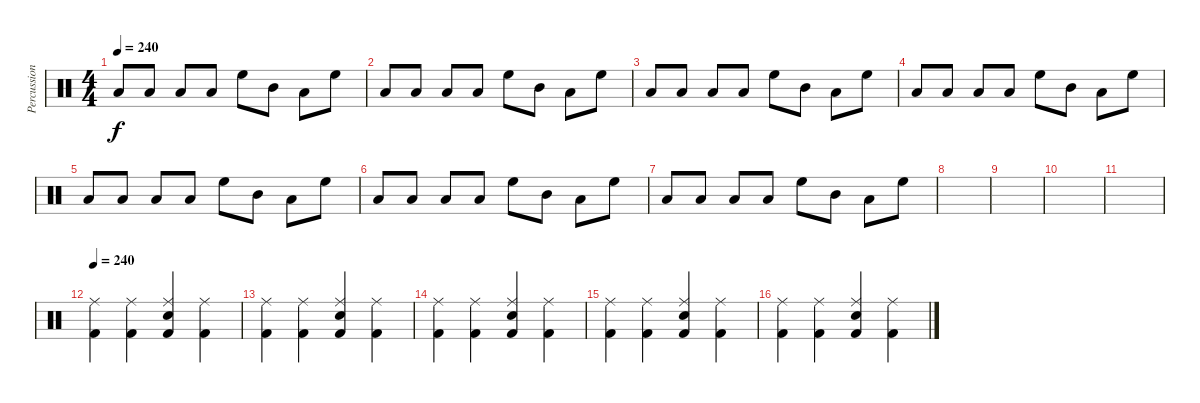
\track ("Percussion" "Percussion") {instrument percussion}
\staff {score}
\articulation defaults
\ts (4 4)
\tempo 240
\clef neutral
\ks c "Low Floor Tom (hit)".8{dy f} "Low Floor Tom (hit)".8 "Low Floor Tom (hit)".8 "Low Tom (hit)".8 "High Floor Tom (hit)".8 "Mid Tom (hit)".8 "Low Floor Tom (hit)".8 "High Floor Tom (hit)".8
|
"Low Floor Tom (hit)".8 "Low Floor Tom (hit)".8 "Low Floor Tom (hit)".8 "Low Tom (hit)".8 "High Floor Tom (hit)".8 "Mid Tom (hit)".8 "Low Floor Tom (hit)".8 "High Floor Tom (hit)".8 |
"Low Floor Tom (hit)".8 "Low Floor Tom (hit)".8 "Low Floor Tom (hit)".8 "Low Tom (hit)".8 "High Floor Tom (hit)".8 "Mid Tom (hit)".8 "Low Floor Tom (hit)".8 "High Floor Tom (hit)".8 |
"Low Floor Tom (hit)".8 "Low Floor Tom (hit)".8 "Low Floor Tom (hit)".8 "Low Tom (hit)".8 "High Floor Tom (hit)".8 "Mid Tom (hit)".8 "Low Floor Tom (hit)".8 "High Floor Tom (hit)".8 |
"Low Floor Tom (hit)".8 "Low Floor Tom (hit)".8 "Low Floor Tom (hit)".8 "Low Tom (hit)".8 "High Floor Tom (hit)".8 "Mid Tom (hit)".8 "Low Floor Tom (hit)".8 "High Floor Tom (hit)".8 |
"Low Floor Tom (hit)".8 "Low Floor Tom (hit)".8 "Low Floor Tom (hit)".8 "Low Tom (hit)".8 "High Floor Tom (hit)".8 "Mid Tom (hit)".8 "Low Floor Tom (hit)".8 "High Floor Tom (hit)".8 |
"Low Floor Tom (hit)".8 "Low Floor Tom (hit)".8 "Low Floor Tom (hit)".8 "Low Tom (hit)".8 "High Floor Tom (hit)".8 "Mid Tom (hit)".8 "Low Floor Tom (hit)".8 "High Floor Tom (hit)".8 |
|
|
|
|
\tempo 240
("Kick (hit) 2" "Ride (middle)").4 ("Kick (hit) 2" "Ride (middle)").4 ("Kick (hit) 2" "Snare (hit) 2" "Ride (middle)").4 ("Kick (hit) 2" "Ride (middle)").4 |
("Kick (hit) 2" "Ride (middle)").4 ("Kick (hit) 2" "Ride (middle)").4 ("Kick (hit) 2" "Snare (hit) 2" "Ride (middle)").4 ("Kick (hit) 2" "Ride (middle)").4 |
("Kick (hit) 2" "Ride (middle)").4 ("Kick (hit) 2" "Ride (middle)").4 ("Kick (hit) 2" "Snare (hit) 2" "Ride (middle)").4 ("Kick (hit) 2" "Ride (middle)").4 |
("Kick (hit) 2" "Ride (middle)").4 ("Kick (hit) 2" "Ride (middle)").4 ("Kick (hit) 2" "Snare (hit) 2" "Ride (middle)").4 ("Kick (hit) 2" "Ride (middle)").4 |
("Kick (hit) 2" "Ride (middle)").4 ("Kick (hit) 2" "Ride (middle)").4 ("Kick (hit) 2" "Snare (hit) 2" "Ride (middle)").4 ("Kick (hit) 2" "Ride (middle)").4
